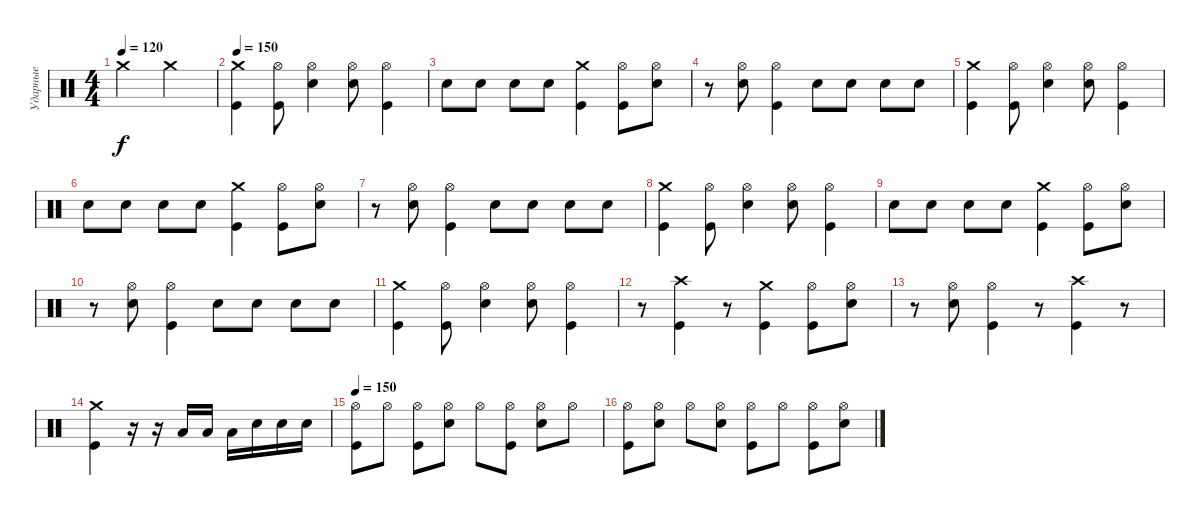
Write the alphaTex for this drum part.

\track ("Ударные" "Ударные") {instrument percussion}
\staff {score}
\articulation defaults
\ts (4 4)
\tempo 120
\clef neutral
\ks c "Crash medium (hit)".2{dy f} "Crash medium (hit)".2
|
\tempo 150
("Kick (hit)" "Crash medium (hit)").4 ("Kick (hit)" "Hi-Hat (open)").8 ("Electric Snare (hit)" "Hi-Hat (open)").4 ("Electric Snare (hit)" "Hi-Hat (open)").8 ("Kick (hit)" "Hi-Hat (open)").4 |
"Electric Snare (hit)".8 "Electric Snare (hit)".8 "Electric Snare (hit)".8 "Electric Snare (hit)".8 ("Kick (hit)" "Crash medium (hit)").4 ("Kick (hit)" "Hi-Hat (open)").8 ("Electric Snare (hit)" "Hi-Hat (open)").8 |
r.8 ("Electric Snare (hit)" "Hi-Hat (open)").8 ("Kick (hit)" "Hi-Hat (open)").4 "Electric Snare (hit)".8 "Electric Snare (hit)".8 "Electric Snare (hit)".8 "Electric Snare (hit)".8 |
("Kick (hit)" "Crash medium (hit)").4 ("Kick (hit)" "Hi-Hat (open)").8 ("Electric Snare (hit)" "Hi-Hat (open)").4 ("Electric Snare (hit)" "Hi-Hat (open)").8 ("Kick (hit)" "Hi-Hat (open)").4 |
"Electric Snare (hit)".8 "Electric Snare (hit)".8 "Electric Snare (hit)".8 "Electric Snare (hit)".8 ("Kick (hit)" "Crash medium (hit)").4 ("Kick (hit)" "Hi-Hat (open)").8 ("Electric Snare (hit)" "Hi-Hat (open)").8 |
r.8 ("Electric Snare (hit)" "Hi-Hat (open)").8 ("Kick (hit)" "Hi-Hat (open)").4 "Electric Snare (hit)".8 "Electric Snare (hit)".8 "Electric Snare (hit)".8 "Electric Snare (hit)".8 |
("Kick (hit)" "Crash medium (hit)").4 ("Kick (hit)" "Hi-Hat (open)").8 ("Electric Snare (hit)" "Hi-Hat (open)").4 ("Electric Snare (hit)" "Hi-Hat (open)").8 ("Kick (hit)" "Hi-Hat (open)").4 |
"Electric Snare (hit)".8 "Electric Snare (hit)".8 "Electric Snare (hit)".8 "Electric Snare (hit)".8 ("Kick (hit)" "Crash medium (hit)").4 ("Kick (hit)" "Hi-Hat (open)").8 ("Electric Snare (hit)" "Hi-Hat (open)").8 |
r.8 ("Electric Snare (hit)" "Hi-Hat (open)").8 ("Kick (hit)" "Hi-Hat (open)").4 "Electric Snare (hit)".8 "Electric Snare (hit)".8 "Electric Snare (hit)".8 "Electric Snare (hit)".8 |
("Kick (hit)" "Crash medium (hit)").4 ("Kick (hit)" "Hi-Hat (open)").8 ("Electric Snare (hit)" "Hi-Hat (open)").4 ("Electric Snare (hit)" "Hi-Hat (open)").8 ("Kick (hit)" "Hi-Hat (open)").4 |
r.8 ("Kick (hit)" "Crash high (hit)").4 r.8 ("Kick (hit)" "Crash medium (hit)").4 ("Kick (hit)" "Hi-Hat (open)").8 ("Electric Snare (hit)" "Hi-Hat (open)").8 |
r.8 ("Electric Snare (hit)" "Hi-Hat (open)").8 ("Kick (hit)" "Hi-Hat (open)").4 r.8 ("Kick (hit)" "Crash high (hit)").4 r.8 |
("Kick (hit)" "Crash medium (hit)").4 r.16 r.16 "Low Tom (hit)".16 "Low Tom (hit)".16 "Low Tom (hit)".16 "Electric Snare (hit)".16 "Electric Snare (hit)".16 "Electric Snare (hit)".16 |
\tempo 150
("Kick (hit)" "Hi-Hat (open)").8 "Hi-Hat (open)".8 ("Kick (hit)" "Hi-Hat (open)").8 ("Electric Snare (hit)" "Hi-Hat (open)").8 "Hi-Hat (open)".8 ("Kick (hit)" "Hi-Hat (open)").8 ("Electric Snare (hit)" "Hi-Hat (open)").8 "Hi-Hat (open)".8 |
("Kick (hit)" "Hi-Hat (open)").8 ("Electric Snare (hit)" "Hi-Hat (open)").8 "Hi-Hat (open)".8 ("Electric Snare (hit)" "Hi-Hat (open)").8 ("Kick (hit)" "Hi-Hat (open)").8 "Hi-Hat (open)".8 ("Kick (hit)" "Hi-Hat (open)").8 ("Electric Snare (hit)" "Hi-Hat (open)").8
